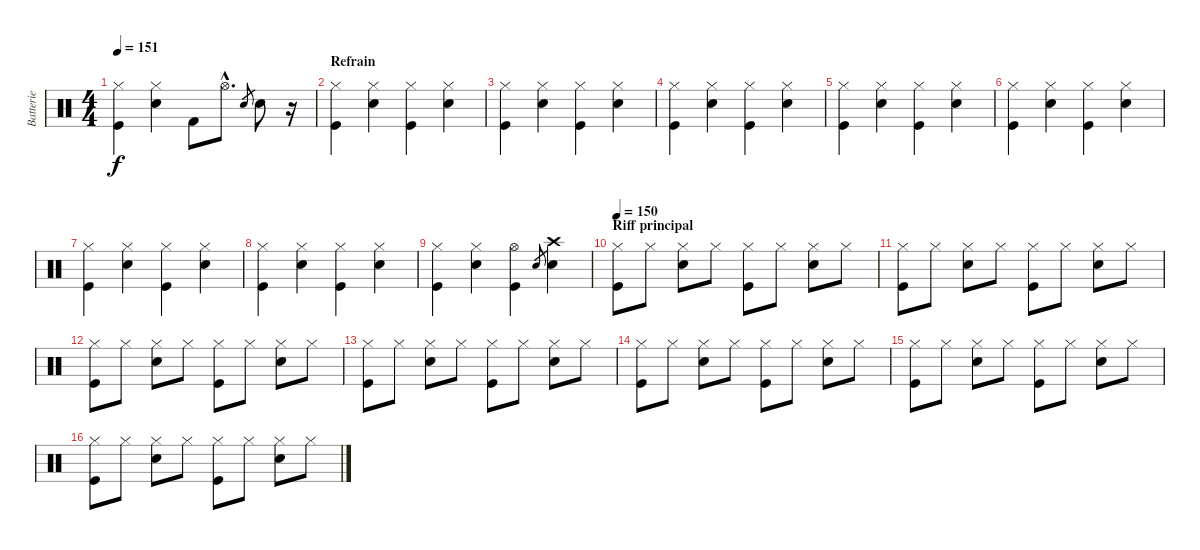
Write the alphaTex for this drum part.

\track ("Batterie" "Batterie") {instrument percussion}
\staff {score}
\articulation defaults
\ts (4 4)
\tempo 151
\clef neutral
\ks c
("Hi-Hat (closed)" "Kick (hit)").4{dy f} ("Hi-Hat (closed)" "Electric Snare (hit)").4 "Kick (hit) 2".8 "Hi-Hat (open)"{hac}.8{d} "Electric Snare (hit)".8{gr} "Electric Snare (hit)".8 r.16 |
\section ("" "Refrain ")
("Hi-Hat (closed)" "Kick (hit)").4 ("Hi-Hat (closed)" "Electric Snare (hit)").4 ("Hi-Hat (closed)" "Kick (hit)").4 ("Hi-Hat (closed)" "Electric Snare (hit)").4 |
("Hi-Hat (closed)" "Kick (hit)").4 ("Hi-Hat (closed)" "Electric Snare (hit)").4 ("Hi-Hat (closed)" "Kick (hit)").4 ("Hi-Hat (closed)" "Electric Snare (hit)").4 |
("Hi-Hat (closed)" "Kick (hit)").4 ("Hi-Hat (closed)" "Electric Snare (hit)").4 ("Hi-Hat (closed)" "Kick (hit)").4 ("Hi-Hat (closed)" "Electric Snare (hit)").4 |
("Hi-Hat (closed)" "Kick (hit)").4 ("Hi-Hat (closed)" "Electric Snare (hit)").4 ("Hi-Hat (closed)" "Kick (hit)").4 ("Hi-Hat (closed)" "Electric Snare (hit)").4 |
("Hi-Hat (closed)" "Kick (hit)").4 ("Hi-Hat (closed)" "Electric Snare (hit)").4 ("Hi-Hat (closed)" "Kick (hit)").4 ("Hi-Hat (closed)" "Electric Snare (hit)").4 |
("Hi-Hat (closed)" "Kick (hit)").4 ("Hi-Hat (closed)" "Electric Snare (hit)").4 ("Hi-Hat (closed)" "Kick (hit)").4 ("Hi-Hat (closed)" "Electric Snare (hit)").4 |
("Hi-Hat (closed)" "Kick (hit)").4 ("Hi-Hat (closed)" "Electric Snare (hit)").4 ("Hi-Hat (closed)" "Kick (hit)").4 ("Hi-Hat (closed)" "Electric Snare (hit)").4 |
("Hi-Hat (closed)" "Kick (hit)").4 ("Hi-Hat (closed)" "Electric Snare (hit)").4 ("Hi-Hat (open)" "Kick (hit)").4 "Electric Snare (hit)".8{gr} ("Crash high (hit)" "Electric Snare (hit)").4 |
\section ("" "Riff principal")
\tempo 150
("Hi-Hat (closed)" "Kick (hit)").8 "Hi-Hat (closed)".8 ("Hi-Hat (closed)" "Electric Snare (hit)").8 "Hi-Hat (closed)".8 ("Hi-Hat (closed)" "Kick (hit)").8 "Hi-Hat (closed)".8 ("Hi-Hat (closed)" "Electric Snare (hit)").8 "Hi-Hat (closed)".8 |
("Hi-Hat (closed)" "Kick (hit)").8 "Hi-Hat (closed)".8 ("Hi-Hat (closed)" "Electric Snare (hit)").8 "Hi-Hat (closed)".8 ("Hi-Hat (closed)" "Kick (hit)").8 "Hi-Hat (closed)".8 ("Hi-Hat (closed)" "Electric Snare (hit)").8 "Hi-Hat (closed)".8 |
("Hi-Hat (closed)" "Kick (hit)").8 "Hi-Hat (closed)".8 ("Hi-Hat (closed)" "Electric Snare (hit)").8 "Hi-Hat (closed)".8 ("Hi-Hat (closed)" "Kick (hit)").8 "Hi-Hat (closed)".8 ("Hi-Hat (closed)" "Electric Snare (hit)").8 "Hi-Hat (closed)".8 |
("Hi-Hat (closed)" "Kick (hit)").8 "Hi-Hat (closed)".8 ("Hi-Hat (closed)" "Electric Snare (hit)").8 "Hi-Hat (closed)".8 ("Hi-Hat (closed)" "Kick (hit)").8 "Hi-Hat (closed)".8 ("Hi-Hat (closed)" "Electric Snare (hit)").8 "Hi-Hat (closed)".8 |
("Hi-Hat (closed)" "Kick (hit)").8 "Hi-Hat (closed)".8 ("Hi-Hat (closed)" "Electric Snare (hit)").8 "Hi-Hat (closed)".8 ("Hi-Hat (closed)" "Kick (hit)").8 "Hi-Hat (closed)".8 ("Hi-Hat (closed)" "Electric Snare (hit)").8 "Hi-Hat (closed)".8 |
("Hi-Hat (closed)" "Kick (hit)").8 "Hi-Hat (closed)".8 ("Hi-Hat (closed)" "Electric Snare (hit)").8 "Hi-Hat (closed)".8 ("Hi-Hat (closed)" "Kick (hit)").8 "Hi-Hat (closed)".8 ("Hi-Hat (closed)" "Electric Snare (hit)").8 "Hi-Hat (closed)".8 |
("Hi-Hat (closed)" "Kick (hit)").8 "Hi-Hat (closed)".8 ("Hi-Hat (closed)" "Electric Snare (hit)").8 "Hi-Hat (closed)".8 ("Hi-Hat (closed)" "Kick (hit)").8 "Hi-Hat (closed)".8 ("Hi-Hat (closed)" "Electric Snare (hit)").8 "Hi-Hat (closed)".8
